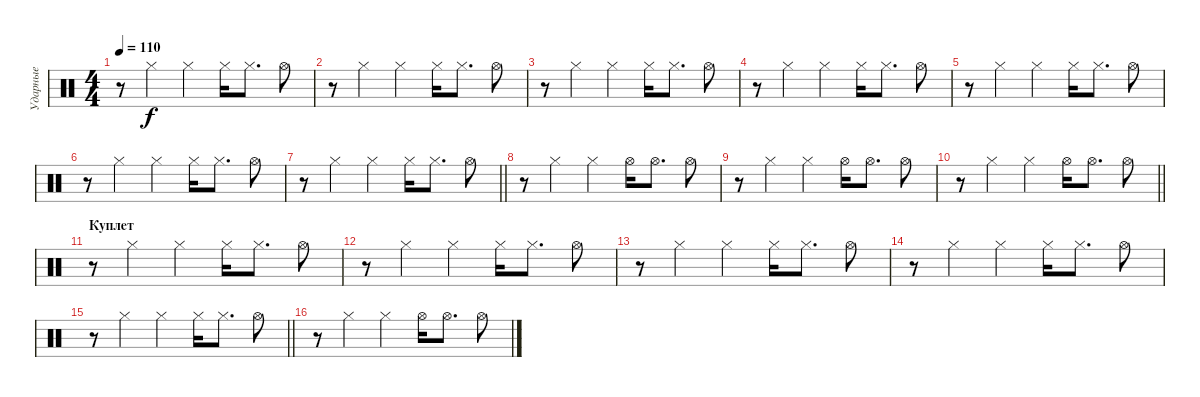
\track ("Ударные" "Ударные") {instrument percussion}
\staff {score}
\articulation defaults
\ts (4 4)
\tempo 110
\clef neutral
\ks c
r.8{dy f} "Hi-Hat (closed)".4 "Hi-Hat (closed)".4 "Hi-Hat (closed)".16 "Hi-Hat (closed)".8{d} "Hi-Hat (open)".8 |
r.8 "Hi-Hat (closed)".4 "Hi-Hat (closed)".4 "Hi-Hat (closed)".16 "Hi-Hat (closed)".8{d} "Hi-Hat (open)".8 |
r.8 "Hi-Hat (closed)".4 "Hi-Hat (closed)".4 "Hi-Hat (closed)".16 "Hi-Hat (closed)".8{d} "Hi-Hat (open)".8 |
r.8 "Hi-Hat (closed)".4 "Hi-Hat (closed)".4 "Hi-Hat (closed)".16 "Hi-Hat (closed)".8{d} "Hi-Hat (open)".8 |
r.8 "Hi-Hat (closed)".4 "Hi-Hat (closed)".4 "Hi-Hat (closed)".16 "Hi-Hat (closed)".8{d} "Hi-Hat (open)".8 |
r.8 "Hi-Hat (closed)".4 "Hi-Hat (closed)".4 "Hi-Hat (closed)".16 "Hi-Hat (closed)".8{d} "Hi-Hat (open)".8 |
\barLineRight lightlight
r.8 "Hi-Hat (closed)".4 "Hi-Hat (closed)".4 "Hi-Hat (closed)".16 "Hi-Hat (closed)".8{d} "Hi-Hat (open)".8 |
\section ("" "")
r.8 "Hi-Hat (closed)".4 "Hi-Hat (closed)".4 "Hi-Hat (open)".16 "Hi-Hat (open)".8{d} "Hi-Hat (open)".8 |
r.8 "Hi-Hat (closed)".4 "Hi-Hat (closed)".4 "Hi-Hat (open)".16 "Hi-Hat (open)".8{d} "Hi-Hat (open)".8 |
\barLineRight lightlight
r.8 "Hi-Hat (closed)".4 "Hi-Hat (closed)".4 "Hi-Hat (open)".16 "Hi-Hat (open)".8{d} "Hi-Hat (open)".8 |
\section ("" "Куплет")
r.8 "Hi-Hat (closed)".4 "Hi-Hat (closed)".4 "Hi-Hat (closed)".16 "Hi-Hat (closed)".8{d} "Hi-Hat (open)".8 |
r.8 "Hi-Hat (closed)".4 "Hi-Hat (closed)".4 "Hi-Hat (closed)".16 "Hi-Hat (closed)".8{d} "Hi-Hat (open)".8 |
r.8 "Hi-Hat (closed)".4 "Hi-Hat (closed)".4 "Hi-Hat (closed)".16 "Hi-Hat (closed)".8{d} "Hi-Hat (open)".8 |
r.8 "Hi-Hat (closed)".4 "Hi-Hat (closed)".4 "Hi-Hat (closed)".16 "Hi-Hat (closed)".8{d} "Hi-Hat (open)".8 |
\barLineRight lightlight
r.8 "Hi-Hat (closed)".4 "Hi-Hat (closed)".4 "Hi-Hat (closed)".16 "Hi-Hat (closed)".8{d} "Hi-Hat (open)".8 |
\section ("" "")
r.8 "Hi-Hat (closed)".4 "Hi-Hat (closed)".4 "Hi-Hat (open)".16 "Hi-Hat (open)".8{d} "Hi-Hat (open)".8
